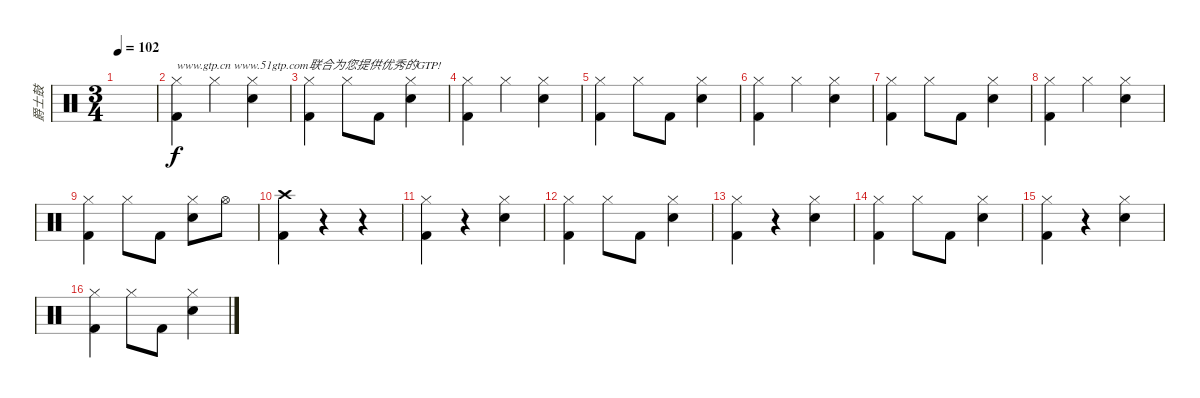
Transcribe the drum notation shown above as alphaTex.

\track ("爵士鼓" "爵士鼓") {instrument percussion}
\staff {score}
\articulation defaults
\ts (3 4)
\tempo 102
\clef neutral
\ks c
|
("Hi-Hat (closed)" "Kick (hit) 2").4{txt "www.gtp.cn www.51gtp.com联合为您提供优秀的GTP!"} "Hi-Hat (closed)".4 ("Hi-Hat (closed)" "Electric Snare (hit)").4 |
("Hi-Hat (closed)" "Kick (hit) 2").4 "Hi-Hat (closed)".8 "Kick (hit) 2".8 ("Hi-Hat (closed)" "Electric Snare (hit)").4 |
("Hi-Hat (closed)" "Kick (hit) 2").4 "Hi-Hat (closed)".4 ("Hi-Hat (closed)" "Electric Snare (hit)").4 |
("Hi-Hat (closed)" "Kick (hit) 2").4 "Hi-Hat (closed)".8 "Kick (hit) 2".8 ("Hi-Hat (closed)" "Electric Snare (hit)").4 |
("Hi-Hat (closed)" "Kick (hit) 2").4 "Hi-Hat (closed)".4 ("Hi-Hat (closed)" "Electric Snare (hit)").4 |
("Hi-Hat (closed)" "Kick (hit) 2").4 "Hi-Hat (closed)".8 "Kick (hit) 2".8 ("Hi-Hat (closed)" "Electric Snare (hit)").4 |
("Hi-Hat (closed)" "Kick (hit) 2").4 "Hi-Hat (closed)".4 ("Hi-Hat (closed)" "Electric Snare (hit)").4 |
("Hi-Hat (closed)" "Kick (hit) 2").4 "Hi-Hat (closed)".8 "Kick (hit) 2".8 ("Hi-Hat (closed)" "Electric Snare (hit)").8 "Hi-Hat (open)".8 |
("Crash high (hit)" "Kick (hit) 2").4 r.4 r.4 |
("Hi-Hat (closed)" "Kick (hit) 2").4 r.4 ("Hi-Hat (closed)" "Electric Snare (hit)").4 |
("Hi-Hat (closed)" "Kick (hit) 2").4 "Hi-Hat (closed)".8 "Kick (hit) 2".8 ("Hi-Hat (closed)" "Electric Snare (hit)").4 |
("Hi-Hat (closed)" "Kick (hit) 2").4 r.4 ("Hi-Hat (closed)" "Electric Snare (hit)").4 |
("Hi-Hat (closed)" "Kick (hit) 2").4 "Hi-Hat (closed)".8 "Kick (hit) 2".8 ("Hi-Hat (closed)" "Electric Snare (hit)").4 |
("Hi-Hat (closed)" "Kick (hit) 2").4 r.4 ("Hi-Hat (closed)" "Electric Snare (hit)").4 |
("Hi-Hat (closed)" "Kick (hit) 2").4 "Hi-Hat (closed)".8 "Kick (hit) 2".8 ("Hi-Hat (closed)" "Electric Snare (hit)").4
